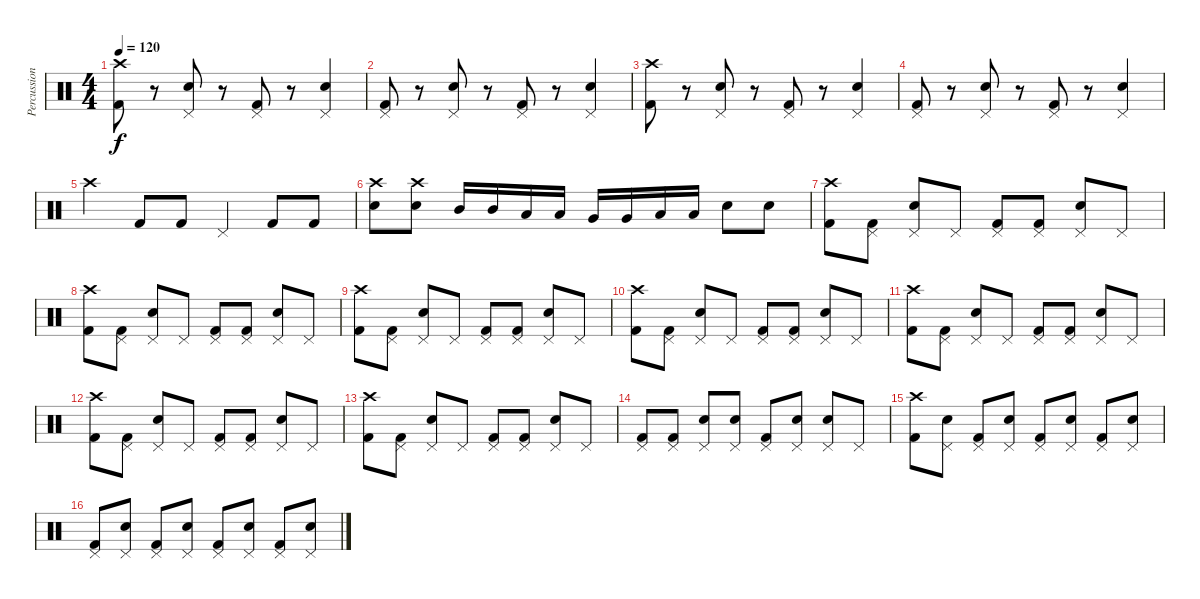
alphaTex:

\track ("Percussions" "Percussion") {instrument percussion}
\staff {score}
\articulation defaults
\ts (4 4)
\tempo 120
\clef neutral
\ks c
("Crash high (hit)" "Kick (hit) 2").8{dy f} r.8 ("Pedal Hi-Hat (hit)" "Snare (hit) 2").8 r.8 ("Pedal Hi-Hat (hit)" "Kick (hit) 2").8 r.8 ("Pedal Hi-Hat (hit)" "Snare (hit) 2").4 |
("Pedal Hi-Hat (hit)" "Kick (hit) 2").8 r.8 ("Pedal Hi-Hat (hit)" "Snare (hit) 2").8 r.8 ("Pedal Hi-Hat (hit)" "Kick (hit) 2").8 r.8 ("Pedal Hi-Hat (hit)" "Snare (hit) 2").4 |
("Crash high (hit)" "Kick (hit) 2").8 r.8 ("Pedal Hi-Hat (hit)" "Snare (hit) 2").8 r.8 ("Pedal Hi-Hat (hit)" "Kick (hit) 2").8 r.8 ("Pedal Hi-Hat (hit)" "Snare (hit) 2").4 |
("Pedal Hi-Hat (hit)" "Kick (hit) 2").8 r.8 ("Pedal Hi-Hat (hit)" "Snare (hit) 2").8 r.8 ("Pedal Hi-Hat (hit)" "Kick (hit) 2").8 r.8 ("Pedal Hi-Hat (hit)" "Snare (hit) 2").4 |
"Crash high (hit)".4 "Kick (hit) 2".8 "Kick (hit) 2".8 "Pedal Hi-Hat (hit)".4 "Kick (hit) 2".8 "Kick (hit) 2".8 |
("Crash high (hit)" "Snare (hit) 2").8 ("Crash high (hit)" "Snare (hit) 2").8 "Mid Tom (hit)".16 "Mid Tom (hit)".16 "Low Tom (hit)".16 "Low Tom (hit)".16 "Very Low Tom (hit)".16 "Very Low Tom (hit)".16 "Low Tom (hit)".16 "Low Tom (hit)".16 "Snare (hit) 2".8 "Snare (hit) 2".8 |
("Crash high (hit)" "Kick (hit) 2").8 ("Pedal Hi-Hat (hit)" "Kick (hit) 2").8 ("Pedal Hi-Hat (hit)" "Snare (hit) 2").8 "Pedal Hi-Hat (hit)".8 ("Pedal Hi-Hat (hit)" "Kick (hit) 2").8 ("Pedal Hi-Hat (hit)" "Kick (hit) 2").8 ("Pedal Hi-Hat (hit)" "Snare (hit) 2").8 "Pedal Hi-Hat (hit)".8 |
("Crash high (hit)" "Kick (hit) 2").8 ("Pedal Hi-Hat (hit)" "Kick (hit) 2").8 ("Pedal Hi-Hat (hit)" "Snare (hit) 2").8 "Pedal Hi-Hat (hit)".8 ("Pedal Hi-Hat (hit)" "Kick (hit) 2").8 ("Pedal Hi-Hat (hit)" "Kick (hit) 2").8 ("Pedal Hi-Hat (hit)" "Snare (hit) 2").8 "Pedal Hi-Hat (hit)".8 |
("Crash high (hit)" "Kick (hit) 2").8 ("Pedal Hi-Hat (hit)" "Kick (hit) 2").8 ("Pedal Hi-Hat (hit)" "Snare (hit) 2").8 "Pedal Hi-Hat (hit)".8 ("Pedal Hi-Hat (hit)" "Kick (hit) 2").8 ("Pedal Hi-Hat (hit)" "Kick (hit) 2").8 ("Pedal Hi-Hat (hit)" "Snare (hit) 2").8 "Pedal Hi-Hat (hit)".8 |
("Crash high (hit)" "Kick (hit) 2").8 ("Pedal Hi-Hat (hit)" "Kick (hit) 2").8 ("Pedal Hi-Hat (hit)" "Snare (hit) 2").8 "Pedal Hi-Hat (hit)".8 ("Pedal Hi-Hat (hit)" "Kick (hit) 2").8 ("Pedal Hi-Hat (hit)" "Kick (hit) 2").8 ("Pedal Hi-Hat (hit)" "Snare (hit) 2").8 "Pedal Hi-Hat (hit)".8 |
("Crash high (hit)" "Kick (hit) 2").8 ("Pedal Hi-Hat (hit)" "Kick (hit) 2").8 ("Pedal Hi-Hat (hit)" "Snare (hit) 2").8 "Pedal Hi-Hat (hit)".8 ("Pedal Hi-Hat (hit)" "Kick (hit) 2").8 ("Pedal Hi-Hat (hit)" "Kick (hit) 2").8 ("Pedal Hi-Hat (hit)" "Snare (hit) 2").8 "Pedal Hi-Hat (hit)".8 |
("Crash high (hit)" "Kick (hit) 2").8 ("Pedal Hi-Hat (hit)" "Kick (hit) 2").8 ("Pedal Hi-Hat (hit)" "Snare (hit) 2").8 "Pedal Hi-Hat (hit)".8 ("Pedal Hi-Hat (hit)" "Kick (hit) 2").8 ("Pedal Hi-Hat (hit)" "Kick (hit) 2").8 ("Pedal Hi-Hat (hit)" "Snare (hit) 2").8 "Pedal Hi-Hat (hit)".8 |
("Crash high (hit)" "Kick (hit) 2").8 ("Pedal Hi-Hat (hit)" "Kick (hit) 2").8 ("Pedal Hi-Hat (hit)" "Snare (hit) 2").8 "Pedal Hi-Hat (hit)".8 ("Pedal Hi-Hat (hit)" "Kick (hit) 2").8 ("Pedal Hi-Hat (hit)" "Kick (hit) 2").8 ("Pedal Hi-Hat (hit)" "Snare (hit) 2").8 "Pedal Hi-Hat (hit)".8 |
("Pedal Hi-Hat (hit)" "Kick (hit) 2").8 ("Pedal Hi-Hat (hit)" "Kick (hit) 2").8 ("Pedal Hi-Hat (hit)" "Snare (hit) 2").8 ("Pedal Hi-Hat (hit)" "Snare (hit) 2").8 ("Pedal Hi-Hat (hit)" "Kick (hit) 2").8 ("Pedal Hi-Hat (hit)" "Snare (hit) 2").8 ("Pedal Hi-Hat (hit)" "Snare (hit) 2").8 "Pedal Hi-Hat (hit)".8 |
("Crash high (hit)" "Kick (hit) 2").8 ("Pedal Hi-Hat (hit)" "Snare (hit) 2").8 ("Pedal Hi-Hat (hit)" "Kick (hit) 2").8 ("Pedal Hi-Hat (hit)" "Snare (hit) 2").8 ("Pedal Hi-Hat (hit)" "Kick (hit) 2").8 ("Pedal Hi-Hat (hit)" "Snare (hit) 2").8 ("Pedal Hi-Hat (hit)" "Kick (hit) 2").8 ("Pedal Hi-Hat (hit)" "Snare (hit) 2").8 |
("Pedal Hi-Hat (hit)" "Kick (hit) 2").8 ("Pedal Hi-Hat (hit)" "Snare (hit) 2").8 ("Pedal Hi-Hat (hit)" "Kick (hit) 2").8 ("Pedal Hi-Hat (hit)" "Snare (hit) 2").8 ("Pedal Hi-Hat (hit)" "Kick (hit) 2").8 ("Pedal Hi-Hat (hit)" "Snare (hit) 2").8 ("Pedal Hi-Hat (hit)" "Kick (hit) 2").8 ("Pedal Hi-Hat (hit)" "Snare (hit) 2").8
